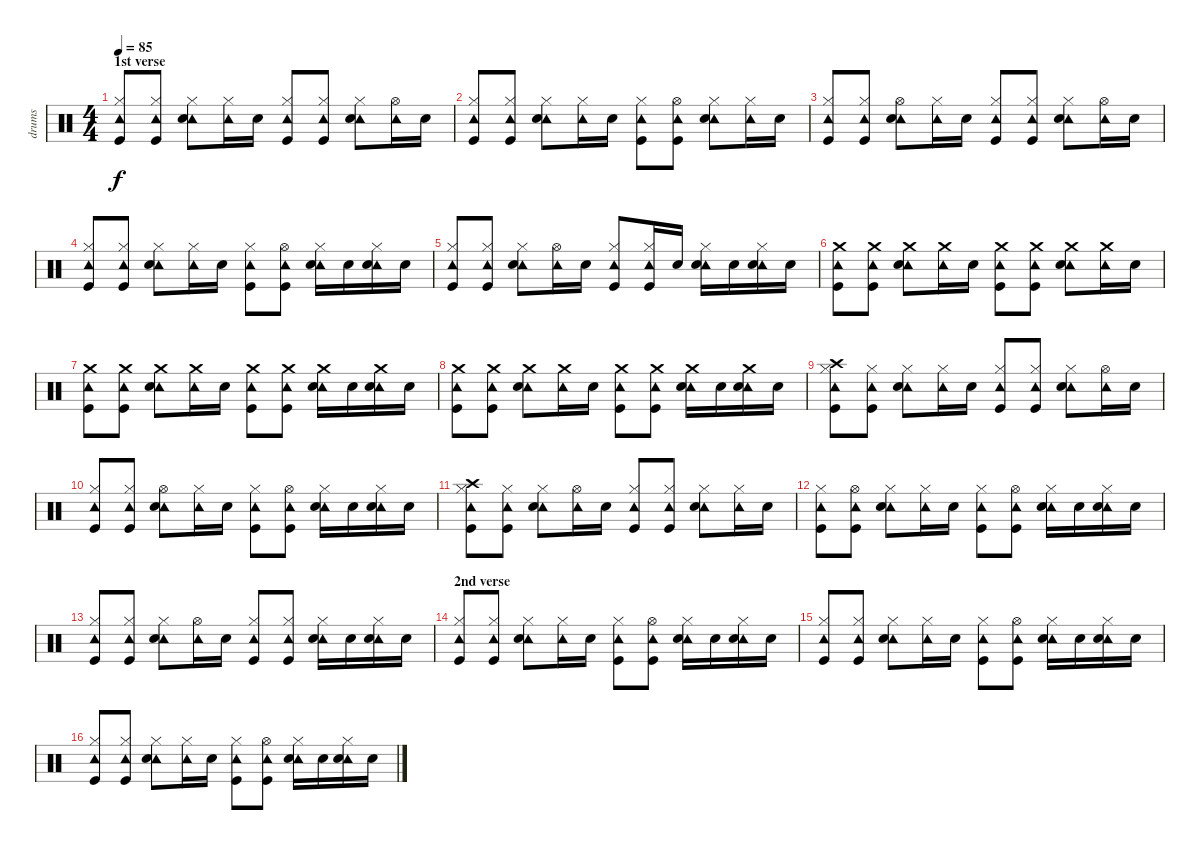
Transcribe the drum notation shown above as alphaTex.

\track ("drums" "drums") {instrument percussion}
\staff {score}
\articulation defaults
\ts (4 4)
\section ("" "1st verse")
\tempo 85
\clef neutral
\ks c
("Tambourine (hit)" "Hi-Hat (closed)" "Kick (hit)").8{dy f} ("Tambourine (hit)" "Hi-Hat (closed)" "Kick (hit)").8 ("Tambourine (hit)" "Hi-Hat (closed)" "Electric Snare (hit)").8 ("Tambourine (hit)" "Hi-Hat (closed)").16 "Electric Snare (hit)".16 ("Tambourine (hit)" "Hi-Hat (closed)" "Kick (hit)").8 ("Tambourine (hit)" "Hi-Hat (closed)" "Kick (hit)").8 ("Tambourine (hit)" "Hi-Hat (closed)" "Electric Snare (hit)").8 ("Tambourine (hit)" "Hi-Hat (open)").16 "Electric Snare (hit)".16 |
("Tambourine (hit)" "Hi-Hat (closed)" "Kick (hit)").8 ("Tambourine (hit)" "Hi-Hat (closed)" "Kick (hit)").8 ("Tambourine (hit)" "Hi-Hat (closed)" "Electric Snare (hit)").8 ("Tambourine (hit)" "Hi-Hat (closed)").16 "Electric Snare (hit)".16 ("Tambourine (hit)" "Hi-Hat (closed)" "Kick (hit)").8 ("Tambourine (hit)" "Hi-Hat (open)" "Kick (hit)").8 ("Tambourine (hit)" "Hi-Hat (closed)" "Electric Snare (hit)").8 ("Tambourine (hit)" "Hi-Hat (closed)").16 "Electric Snare (hit)".16 |
("Tambourine (hit)" "Hi-Hat (closed)" "Kick (hit)").8 ("Tambourine (hit)" "Hi-Hat (closed)" "Kick (hit)").8 ("Tambourine (hit)" "Hi-Hat (open)" "Electric Snare (hit)").8 ("Tambourine (hit)" "Hi-Hat (closed)").16 "Electric Snare (hit)".16 ("Tambourine (hit)" "Hi-Hat (closed)" "Kick (hit)").8 ("Tambourine (hit)" "Hi-Hat (closed)" "Kick (hit)").8 ("Tambourine (hit)" "Hi-Hat (closed)" "Electric Snare (hit)").8 ("Tambourine (hit)" "Hi-Hat (open)").16 "Electric Snare (hit)".16 |
("Tambourine (hit)" "Hi-Hat (closed)" "Kick (hit)").8 ("Tambourine (hit)" "Hi-Hat (closed)" "Kick (hit)").8 ("Tambourine (hit)" "Hi-Hat (closed)" "Electric Snare (hit)").8 ("Tambourine (hit)" "Hi-Hat (closed)").16 "Electric Snare (hit)".16 ("Tambourine (hit)" "Hi-Hat (closed)" "Kick (hit)").8 ("Tambourine (hit)" "Hi-Hat (open)" "Kick (hit)").8 ("Tambourine (hit)" "Hi-Hat (closed)" "Electric Snare (hit)").16 "Electric Snare (hit)".16 ("Tambourine (hit)" "Hi-Hat (closed)" "Electric Snare (hit)").16 "Electric Snare (hit)".16 |
\section ("" "")
("Tambourine (hit)" "Hi-Hat (closed)" "Kick (hit)").8 ("Tambourine (hit)" "Hi-Hat (closed)" "Kick (hit)").8 ("Tambourine (hit)" "Hi-Hat (closed)" "Electric Snare (hit)").8 ("Tambourine (hit)" "Hi-Hat (open)").16 "Electric Snare (hit)".16 ("Tambourine (hit)" "Hi-Hat (closed)" "Kick (hit)").8 ("Tambourine (hit)" "Hi-Hat (closed)" "Kick (hit)").16 "Electric Snare (hit)".16 ("Tambourine (hit)" "Hi-Hat (closed)" "Electric Snare (hit)").16 "Electric Snare (hit)".16 ("Tambourine (hit)" "Hi-Hat (closed)" "Electric Snare (hit)").16 "Electric Snare (hit)".16 |
("Tambourine (hit)" "Crash medium (hit)" "Kick (hit)").8 ("Tambourine (hit)" "Crash medium (hit)" "Kick (hit)").8 ("Tambourine (hit)" "Crash medium (hit)" "Electric Snare (hit)").8 ("Tambourine (hit)" "Crash medium (hit)").16 "Electric Snare (hit)".16 ("Tambourine (hit)" "Crash medium (hit)" "Kick (hit)").8 ("Tambourine (hit)" "Crash medium (hit)" "Kick (hit)").8 ("Tambourine (hit)" "Crash medium (hit)" "Electric Snare (hit)").8 ("Tambourine (hit)" "Crash medium (hit)").16 "Electric Snare (hit)".16 |
("Tambourine (hit)" "Crash medium (hit)" "Kick (hit)").8 ("Tambourine (hit)" "Crash medium (hit)" "Kick (hit)").8 ("Tambourine (hit)" "Crash medium (hit)" "Electric Snare (hit)").8 ("Tambourine (hit)" "Crash medium (hit)").16 "Electric Snare (hit)".16 ("Tambourine (hit)" "Crash medium (hit)" "Kick (hit)").8 ("Tambourine (hit)" "Crash medium (hit)" "Kick (hit)").8 ("Tambourine (hit)" "Crash medium (hit)" "Electric Snare (hit)").16 "Electric Snare (hit)".16 ("Tambourine (hit)" "Crash medium (hit)" "Electric Snare (hit)").16 "Electric Snare (hit)".16 |
("Tambourine (hit)" "Crash medium (hit)" "Kick (hit)").8 ("Tambourine (hit)" "Crash medium (hit)" "Kick (hit)").8 ("Tambourine (hit)" "Crash medium (hit)" "Electric Snare (hit)").8 ("Tambourine (hit)" "Crash medium (hit)").16 "Electric Snare (hit)".16 ("Tambourine (hit)" "Crash medium (hit)" "Kick (hit)").8 ("Tambourine (hit)" "Crash medium (hit)" "Kick (hit)").8 ("Tambourine (hit)" "Crash medium (hit)" "Electric Snare (hit)").16 "Electric Snare (hit)".16 ("Tambourine (hit)" "Crash medium (hit)" "Electric Snare (hit)").16 "Electric Snare (hit)".16 |
\section ("" "")
("Tambourine (hit)" "Hi-Hat (closed)" "Crash high (hit)" "Kick (hit)").8 ("Tambourine (hit)" "Hi-Hat (closed)" "Kick (hit)").8 ("Tambourine (hit)" "Hi-Hat (closed)" "Electric Snare (hit)").8 ("Tambourine (hit)" "Hi-Hat (closed)").16 "Electric Snare (hit)".16 ("Tambourine (hit)" "Hi-Hat (closed)" "Kick (hit)").8 ("Tambourine (hit)" "Hi-Hat (closed)" "Kick (hit)").8 ("Tambourine (hit)" "Hi-Hat (closed)" "Electric Snare (hit)").8 ("Tambourine (hit)" "Hi-Hat (open)").16 "Electric Snare (hit)".16 |
("Tambourine (hit)" "Hi-Hat (closed)" "Kick (hit)").8 ("Tambourine (hit)" "Hi-Hat (closed)" "Kick (hit)").8 ("Tambourine (hit)" "Hi-Hat (open)" "Electric Snare (hit)").8 ("Tambourine (hit)" "Hi-Hat (closed)").16 "Electric Snare (hit)".16 ("Tambourine (hit)" "Hi-Hat (closed)" "Kick (hit)").8 ("Tambourine (hit)" "Hi-Hat (open)" "Kick (hit)").8 ("Tambourine (hit)" "Hi-Hat (closed)" "Electric Snare (hit)").16 "Electric Snare (hit)".16 ("Tambourine (hit)" "Hi-Hat (closed)" "Electric Snare (hit)").16 "Electric Snare (hit)".16 |
("Tambourine (hit)" "Hi-Hat (closed)" "Crash high (hit)" "Kick (hit)").8 ("Tambourine (hit)" "Hi-Hat (closed)" "Kick (hit)").8 ("Tambourine (hit)" "Hi-Hat (closed)" "Electric Snare (hit)").8 ("Tambourine (hit)" "Hi-Hat (open)").16 "Electric Snare (hit)".16 ("Tambourine (hit)" "Hi-Hat (closed)" "Kick (hit)").8 ("Tambourine (hit)" "Hi-Hat (closed)" "Kick (hit)").8 ("Tambourine (hit)" "Hi-Hat (closed)" "Electric Snare (hit)").8 ("Tambourine (hit)" "Hi-Hat (closed)").16 "Electric Snare (hit)".16 |
("Tambourine (hit)" "Hi-Hat (closed)" "Kick (hit)").8 ("Tambourine (hit)" "Hi-Hat (open)" "Kick (hit)").8 ("Tambourine (hit)" "Hi-Hat (closed)" "Electric Snare (hit)").8 ("Tambourine (hit)" "Hi-Hat (closed)").16 "Electric Snare (hit)".16 ("Tambourine (hit)" "Hi-Hat (closed)" "Kick (hit)").8 ("Tambourine (hit)" "Hi-Hat (open)" "Kick (hit)").8 ("Tambourine (hit)" "Hi-Hat (closed)" "Electric Snare (hit)").16 "Electric Snare (hit)".16 ("Tambourine (hit)" "Hi-Hat (closed)" "Electric Snare (hit)").16 "Electric Snare (hit)".16 |
("Tambourine (hit)" "Hi-Hat (closed)" "Kick (hit)").8 ("Tambourine (hit)" "Hi-Hat (closed)" "Kick (hit)").8 ("Tambourine (hit)" "Hi-Hat (closed)" "Electric Snare (hit)").8 ("Tambourine (hit)" "Hi-Hat (open)").16 "Electric Snare (hit)".16 ("Tambourine (hit)" "Hi-Hat (closed)" "Kick (hit)").8 ("Tambourine (hit)" "Hi-Hat (closed)" "Kick (hit)").8 ("Tambourine (hit)" "Hi-Hat (closed)" "Electric Snare (hit)").16 "Electric Snare (hit)".16 ("Tambourine (hit)" "Hi-Hat (closed)" "Electric Snare (hit)").16 "Electric Snare (hit)".16 |
\section ("" "2nd verse")
("Tambourine (hit)" "Hi-Hat (closed)" "Kick (hit)").8 ("Tambourine (hit)" "Hi-Hat (closed)" "Kick (hit)").8 ("Tambourine (hit)" "Hi-Hat (closed)" "Electric Snare (hit)").8 ("Tambourine (hit)" "Hi-Hat (closed)").16 "Electric Snare (hit)".16 ("Tambourine (hit)" "Hi-Hat (closed)" "Kick (hit)").8 ("Tambourine (hit)" "Hi-Hat (open)" "Kick (hit)").8 ("Tambourine (hit)" "Hi-Hat (closed)" "Electric Snare (hit)").16 "Electric Snare (hit)".16 ("Tambourine (hit)" "Hi-Hat (closed)" "Electric Snare (hit)").16 "Electric Snare (hit)".16 |
("Tambourine (hit)" "Hi-Hat (closed)" "Kick (hit)").8 ("Tambourine (hit)" "Hi-Hat (closed)" "Kick (hit)").8 ("Tambourine (hit)" "Hi-Hat (closed)" "Electric Snare (hit)").8 ("Tambourine (hit)" "Hi-Hat (closed)").16 "Electric Snare (hit)".16 ("Tambourine (hit)" "Hi-Hat (closed)" "Kick (hit)").8 ("Tambourine (hit)" "Hi-Hat (open)" "Kick (hit)").8 ("Tambourine (hit)" "Hi-Hat (closed)" "Electric Snare (hit)").16 "Electric Snare (hit)".16 ("Tambourine (hit)" "Hi-Hat (closed)" "Electric Snare (hit)").16 "Electric Snare (hit)".16 |
("Tambourine (hit)" "Hi-Hat (closed)" "Kick (hit)").8 ("Tambourine (hit)" "Hi-Hat (closed)" "Kick (hit)").8 ("Tambourine (hit)" "Hi-Hat (closed)" "Electric Snare (hit)").8 ("Tambourine (hit)" "Hi-Hat (closed)").16 "Electric Snare (hit)".16 ("Tambourine (hit)" "Hi-Hat (closed)" "Kick (hit)").8 ("Tambourine (hit)" "Hi-Hat (open)" "Kick (hit)").8 ("Tambourine (hit)" "Hi-Hat (closed)" "Electric Snare (hit)").16 "Electric Snare (hit)".16 ("Tambourine (hit)" "Hi-Hat (closed)" "Electric Snare (hit)").16 "Electric Snare (hit)".16
